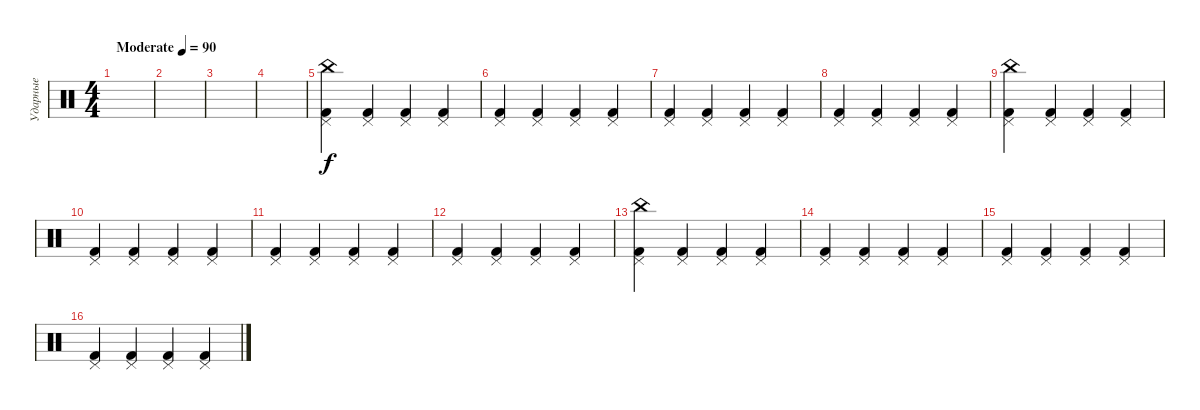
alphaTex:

\track ("Ударные" "Ударные") {instrument percussion}
\staff {score}
\articulation defaults
\ts (4 4)
\tempo (90 "Moderate")
\clef neutral
\ks c
|
|
|
|
("Kick (hit) 2" "Pedal Hi-Hat (hit)" "China (hit)").4 ("Kick (hit) 2" "Pedal Hi-Hat (hit)").4 ("Kick (hit) 2" "Pedal Hi-Hat (hit)").4 ("Kick (hit) 2" "Pedal Hi-Hat (hit)").4 |
("Kick (hit) 2" "Pedal Hi-Hat (hit)").4 ("Kick (hit) 2" "Pedal Hi-Hat (hit)").4 ("Kick (hit) 2" "Pedal Hi-Hat (hit)").4 ("Kick (hit) 2" "Pedal Hi-Hat (hit)").4 |
("Kick (hit) 2" "Pedal Hi-Hat (hit)").4 ("Kick (hit) 2" "Pedal Hi-Hat (hit)").4 ("Kick (hit) 2" "Pedal Hi-Hat (hit)").4 ("Kick (hit) 2" "Pedal Hi-Hat (hit)").4 |
("Kick (hit) 2" "Pedal Hi-Hat (hit)").4 ("Kick (hit) 2" "Pedal Hi-Hat (hit)").4 ("Kick (hit) 2" "Pedal Hi-Hat (hit)").4 ("Kick (hit) 2" "Pedal Hi-Hat (hit)").4 |
("Kick (hit) 2" "Pedal Hi-Hat (hit)" "China (hit)").4 ("Kick (hit) 2" "Pedal Hi-Hat (hit)").4 ("Kick (hit) 2" "Pedal Hi-Hat (hit)").4 ("Kick (hit) 2" "Pedal Hi-Hat (hit)").4 |
("Kick (hit) 2" "Pedal Hi-Hat (hit)").4 ("Kick (hit) 2" "Pedal Hi-Hat (hit)").4 ("Kick (hit) 2" "Pedal Hi-Hat (hit)").4 ("Kick (hit) 2" "Pedal Hi-Hat (hit)").4 |
("Kick (hit) 2" "Pedal Hi-Hat (hit)").4 ("Kick (hit) 2" "Pedal Hi-Hat (hit)").4 ("Kick (hit) 2" "Pedal Hi-Hat (hit)").4 ("Kick (hit) 2" "Pedal Hi-Hat (hit)").4 |
("Kick (hit) 2" "Pedal Hi-Hat (hit)").4 ("Kick (hit) 2" "Pedal Hi-Hat (hit)").4 ("Kick (hit) 2" "Pedal Hi-Hat (hit)").4 ("Kick (hit) 2" "Pedal Hi-Hat (hit)").4 |
("Kick (hit) 2" "Pedal Hi-Hat (hit)" "China (hit)").4 ("Kick (hit) 2" "Pedal Hi-Hat (hit)").4 ("Kick (hit) 2" "Pedal Hi-Hat (hit)").4 ("Kick (hit) 2" "Pedal Hi-Hat (hit)").4 |
("Kick (hit) 2" "Pedal Hi-Hat (hit)").4 ("Kick (hit) 2" "Pedal Hi-Hat (hit)").4 ("Kick (hit) 2" "Pedal Hi-Hat (hit)").4 ("Kick (hit) 2" "Pedal Hi-Hat (hit)").4 |
("Kick (hit) 2" "Pedal Hi-Hat (hit)").4 ("Kick (hit) 2" "Pedal Hi-Hat (hit)").4 ("Kick (hit) 2" "Pedal Hi-Hat (hit)").4 ("Kick (hit) 2" "Pedal Hi-Hat (hit)").4 |
("Kick (hit) 2" "Pedal Hi-Hat (hit)").4 ("Kick (hit) 2" "Pedal Hi-Hat (hit)").4 ("Kick (hit) 2" "Pedal Hi-Hat (hit)").4 ("Kick (hit) 2" "Pedal Hi-Hat (hit)").4
